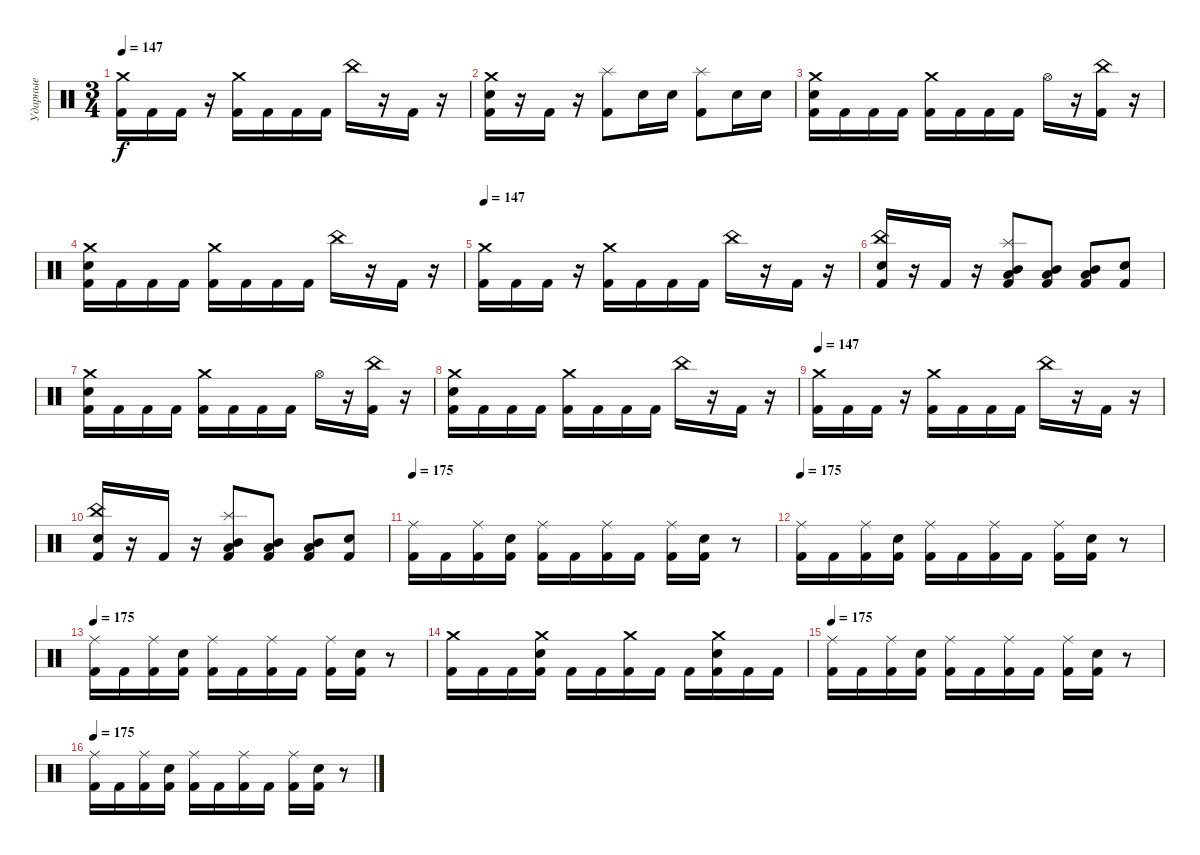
\track ("Ударные" "Ударные") {instrument percussion}
\staff {score}
\articulation defaults
\ts (3 4)
\tempo 147
\clef neutral
\ks c
("Crash medium (hit)" "Kick (hit) 2").16{dy f} "Kick (hit) 2".16 "Kick (hit) 2".16 r.16 ("Crash medium (hit)" "Kick (hit) 2").16 "Kick (hit) 2".16 "Kick (hit) 2".16 "Kick (hit) 2".16 "China (hit)".16 r.16 "Kick (hit) 2".16 r.16 |
("Crash medium (hit)" "Electric Snare (hit)" "Kick (hit) 2").16 r.16 "Kick (hit) 2".16 r.16 ("Splash (hit)" "Kick (hit) 2").8 "Electric Snare (hit)".16 "Electric Snare (hit)".16 ("Splash (hit)" "Kick (hit) 2").8 "Electric Snare (hit)".16 "Electric Snare (hit)".16 |
("Crash medium (hit)" "Electric Snare (hit)" "Kick (hit) 2").16 "Kick (hit) 2".16 "Kick (hit) 2".16 "Kick (hit) 2".16 ("Crash medium (hit)" "Kick (hit) 2").16 "Kick (hit) 2".16 "Kick (hit) 2".16 "Kick (hit) 2".16 "Hi-Hat (open)".16 r.16 ("China (hit)" "Kick (hit) 2").16 r.16 |
("Crash medium (hit)" "Electric Snare (hit)" "Kick (hit) 2").16 "Kick (hit) 2".16 "Kick (hit) 2".16 "Kick (hit) 2".16 ("Crash medium (hit)" "Kick (hit) 2").16 "Kick (hit) 2".16 "Kick (hit) 2".16 "Kick (hit) 2".16 "China (hit)".16 r.16 "Kick (hit) 2".16 r.16 |
\tempo 147
("Crash medium (hit)" "Kick (hit) 2").16 "Kick (hit) 2".16 "Kick (hit) 2".16 r.16 ("Crash medium (hit)" "Kick (hit) 2").16 "Kick (hit) 2".16 "Kick (hit) 2".16 "Kick (hit) 2".16 "China (hit)".16 r.16 "Kick (hit) 2".16 r.16 |
("China (hit)" "Electric Snare (hit)" "Kick (hit) 2").16 r.16 "Kick (hit) 2".16 r.16 ("Splash (hit)" "Mid Tom (hit)" "Low Tom (hit)" "Kick (hit) 2").8 ("Mid Tom (hit)" "Low Tom (hit)" "Kick (hit) 2").8 ("Mid Tom (hit)" "Low Tom (hit)" "Kick (hit) 2").8 ("Electric Snare (hit)" "Kick (hit) 2").8 |
("Crash medium (hit)" "Electric Snare (hit)" "Kick (hit) 2").16 "Kick (hit) 2".16 "Kick (hit) 2".16 "Kick (hit) 2".16 ("Crash medium (hit)" "Kick (hit) 2").16 "Kick (hit) 2".16 "Kick (hit) 2".16 "Kick (hit) 2".16 "Hi-Hat (open)".16 r.16 ("China (hit)" "Kick (hit) 2").16 r.16 |
("Crash medium (hit)" "Electric Snare (hit)" "Kick (hit) 2").16 "Kick (hit) 2".16 "Kick (hit) 2".16 "Kick (hit) 2".16 ("Crash medium (hit)" "Kick (hit) 2").16 "Kick (hit) 2".16 "Kick (hit) 2".16 "Kick (hit) 2".16 "China (hit)".16 r.16 "Kick (hit) 2".16 r.16 |
\tempo 147
("Crash medium (hit)" "Kick (hit) 2").16 "Kick (hit) 2".16 "Kick (hit) 2".16 r.16 ("Crash medium (hit)" "Kick (hit) 2").16 "Kick (hit) 2".16 "Kick (hit) 2".16 "Kick (hit) 2".16 "China (hit)".16 r.16 "Kick (hit) 2".16 r.16 |
("China (hit)" "Electric Snare (hit)" "Kick (hit) 2").16 r.16 "Kick (hit) 2".16 r.16 ("Splash (hit)" "Mid Tom (hit)" "Low Tom (hit)" "Kick (hit) 2").8 ("Mid Tom (hit)" "Low Tom (hit)" "Kick (hit) 2").8 ("Mid Tom (hit)" "Low Tom (hit)" "Kick (hit) 2").8 ("Electric Snare (hit)" "Kick (hit) 2").8 |
\tempo 175
("Ride (middle)" "Kick (hit) 2").16 "Kick (hit) 2".16 ("Ride (middle)" "Kick (hit) 2").16 ("Electric Snare (hit)" "Kick (hit) 2").16 ("Ride (middle)" "Kick (hit) 2").16 "Kick (hit) 2".16 ("Ride (middle)" "Kick (hit) 2").16 "Kick (hit) 2".16 ("Ride (middle)" "Kick (hit) 2").16 ("Electric Snare (hit)" "Kick (hit) 2").16 r.8 |
\tempo 175
("Ride (middle)" "Kick (hit) 2").16 "Kick (hit) 2".16 ("Ride (middle)" "Kick (hit) 2").16 ("Electric Snare (hit)" "Kick (hit) 2").16 ("Ride (middle)" "Kick (hit) 2").16 "Kick (hit) 2".16 ("Ride (middle)" "Kick (hit) 2").16 "Kick (hit) 2".16 ("Ride (middle)" "Kick (hit) 2").16 ("Electric Snare (hit)" "Kick (hit) 2").16 r.8 |
\tempo 175
("Ride (middle)" "Kick (hit) 2").16 "Kick (hit) 2".16 ("Ride (middle)" "Kick (hit) 2").16 ("Electric Snare (hit)" "Kick (hit) 2").16 ("Ride (middle)" "Kick (hit) 2").16 "Kick (hit) 2".16 ("Ride (middle)" "Kick (hit) 2").16 "Kick (hit) 2".16 ("Ride (middle)" "Kick (hit) 2").16 ("Electric Snare (hit)" "Kick (hit) 2").16 r.8 |
("Crash medium (hit)" "Kick (hit) 2").16 "Kick (hit) 2".16 "Kick (hit) 2".16 ("Crash medium (hit)" "Electric Snare (hit)" "Kick (hit) 2").16 "Kick (hit) 2".16 "Kick (hit) 2".16 ("Crash medium (hit)" "Kick (hit) 2").16 "Kick (hit) 2".16 "Kick (hit) 2".16 ("Crash medium (hit)" "Electric Snare (hit)" "Kick (hit) 2").16 "Kick (hit) 2".16 "Kick (hit) 2".16 |
\tempo 175
("Ride (middle)" "Kick (hit) 2").16 "Kick (hit) 2".16 ("Ride (middle)" "Kick (hit) 2").16 ("Electric Snare (hit)" "Kick (hit) 2").16 ("Ride (middle)" "Kick (hit) 2").16 "Kick (hit) 2".16 ("Ride (middle)" "Kick (hit) 2").16 "Kick (hit) 2".16 ("Ride (middle)" "Kick (hit) 2").16 ("Electric Snare (hit)" "Kick (hit) 2").16 r.8 |
\tempo 175
("Ride (middle)" "Kick (hit) 2").16 "Kick (hit) 2".16 ("Ride (middle)" "Kick (hit) 2").16 ("Electric Snare (hit)" "Kick (hit) 2").16 ("Ride (middle)" "Kick (hit) 2").16 "Kick (hit) 2".16 ("Ride (middle)" "Kick (hit) 2").16 "Kick (hit) 2".16 ("Ride (middle)" "Kick (hit) 2").16 ("Electric Snare (hit)" "Kick (hit) 2").16 r.8
